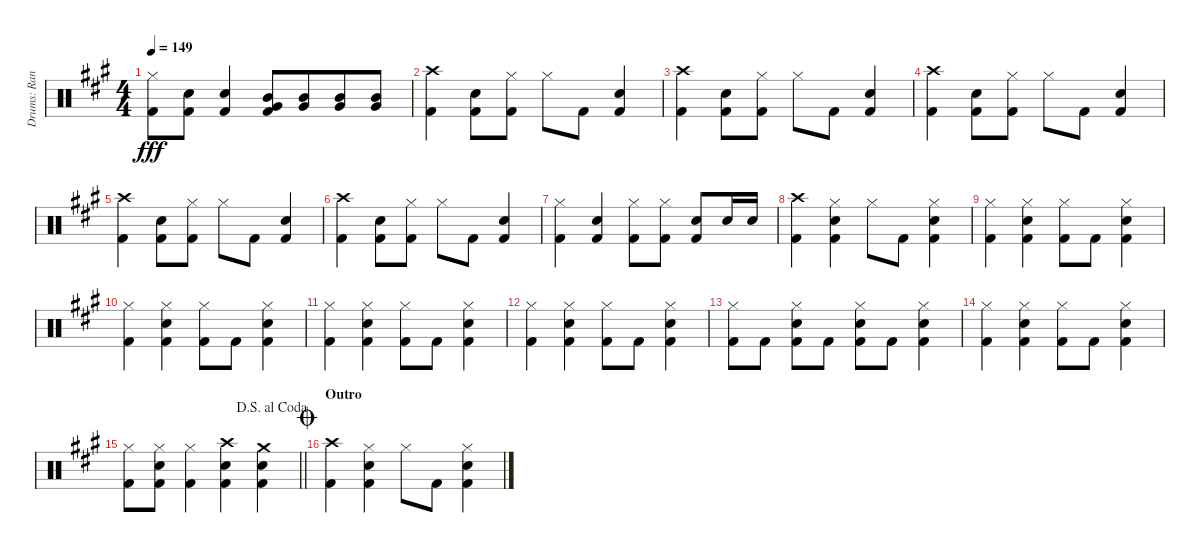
\track ("Drums: Randy" "Drums: Ran") {instrument percussion}
\staff {score}
\articulation defaults
\ts (4 4)
\tempo 149
\clef neutral
\ks a
("Hi-Hat (closed)" "Kick (hit) 2").8{dy fff} ("Snare (hit) 2" "Kick (hit) 2").8 ("Snare (hit) 2" "Kick (hit) 2").4 ("Mid Tom (hit)" "Very Low Tom (hit)" "Kick (hit) 2").8{beam merge} ("Mid Tom (hit)" "Very Low Tom (hit)").8{beam merge} ("Mid Tom (hit)" "Very Low Tom (hit)").8{beam merge} ("Mid Tom (hit)" "Very Low Tom (hit)").8 |
("Crash high (hit)" "Kick (hit) 2").4 ("Snare (hit) 2" "Kick (hit) 2").8 ("Hi-Hat (closed)" "Kick (hit) 2").8 "Hi-Hat (closed)".8 "Kick (hit) 2".8 ("Snare (hit) 2" "Kick (hit) 2").4 |
("Crash high (hit)" "Kick (hit) 2").4 ("Snare (hit) 2" "Kick (hit) 2").8 ("Hi-Hat (closed)" "Kick (hit) 2").8 "Hi-Hat (closed)".8 "Kick (hit) 2".8 ("Snare (hit) 2" "Kick (hit) 2").4 |
("Crash high (hit)" "Kick (hit) 2").4 ("Snare (hit) 2" "Kick (hit) 2").8 ("Hi-Hat (closed)" "Kick (hit) 2").8 "Hi-Hat (closed)".8 "Kick (hit) 2".8 ("Snare (hit) 2" "Kick (hit) 2").4 |
("Crash high (hit)" "Kick (hit) 2").4 ("Snare (hit) 2" "Kick (hit) 2").8 ("Hi-Hat (closed)" "Kick (hit) 2").8 "Hi-Hat (closed)".8 "Kick (hit) 2".8 ("Snare (hit) 2" "Kick (hit) 2").4 |
("Crash high (hit)" "Kick (hit) 2").4 ("Snare (hit) 2" "Kick (hit) 2").8 ("Hi-Hat (closed)" "Kick (hit) 2").8 "Hi-Hat (closed)".8 "Kick (hit) 2".8 ("Snare (hit) 2" "Kick (hit) 2").4 |
("Hi-Hat (closed)" "Kick (hit) 2").4 ("Snare (hit) 2" "Kick (hit) 2").4 ("Hi-Hat (closed)" "Kick (hit) 2").8 ("Hi-Hat (closed)" "Kick (hit) 2").8 ("Snare (hit) 2" "Kick (hit) 2").8 "Snare (hit) 2".16 "Snare (hit) 2".16 |
("Crash high (hit)" "Kick (hit) 2").4 ("Hi-Hat (closed)" "Snare (hit) 2" "Kick (hit) 2").4 "Hi-Hat (closed)".8 "Kick (hit) 2".8 ("Hi-Hat (closed)" "Snare (hit) 2" "Kick (hit) 2").4 |
("Hi-Hat (closed)" "Kick (hit) 2").4 ("Hi-Hat (closed)" "Snare (hit) 2" "Kick (hit) 2").4 ("Hi-Hat (closed)" "Kick (hit) 2").8 "Kick (hit) 2".8 ("Hi-Hat (closed)" "Snare (hit) 2" "Kick (hit) 2").4 |
("Hi-Hat (closed)" "Kick (hit) 2").4 ("Hi-Hat (closed)" "Snare (hit) 2" "Kick (hit) 2").4 ("Hi-Hat (closed)" "Kick (hit) 2").8 "Kick (hit) 2".8 ("Hi-Hat (closed)" "Snare (hit) 2" "Kick (hit) 2").4 |
("Hi-Hat (closed)" "Kick (hit) 2").4 ("Hi-Hat (closed)" "Snare (hit) 2" "Kick (hit) 2").4 ("Hi-Hat (closed)" "Kick (hit) 2").8 "Kick (hit) 2".8 ("Hi-Hat (closed)" "Snare (hit) 2" "Kick (hit) 2").4 |
("Hi-Hat (closed)" "Kick (hit) 2").4 ("Hi-Hat (closed)" "Snare (hit) 2" "Kick (hit) 2").4 ("Hi-Hat (closed)" "Kick (hit) 2").8 "Kick (hit) 2".8 ("Hi-Hat (closed)" "Snare (hit) 2" "Kick (hit) 2").4 |
("Hi-Hat (closed)" "Kick (hit) 2").8 "Kick (hit) 2".8 ("Hi-Hat (closed)" "Snare (hit) 2" "Kick (hit) 2").8 "Kick (hit) 2".8 ("Hi-Hat (closed)" "Snare (hit) 2" "Kick (hit) 2").8 "Kick (hit) 2".8 ("Hi-Hat (closed)" "Snare (hit) 2" "Kick (hit) 2").4 |
("Hi-Hat (closed)" "Kick (hit) 2").4 ("Hi-Hat (closed)" "Snare (hit) 2" "Kick (hit) 2").4 ("Hi-Hat (closed)" "Kick (hit) 2").8 "Kick (hit) 2".8 ("Hi-Hat (closed)" "Snare (hit) 2" "Kick (hit) 2").4 |
\jump dalsegnoalcoda
\barLineRight lightlight
("Hi-Hat (closed)" "Kick (hit) 2").8 ("Hi-Hat (closed)" "Snare (hit) 2" "Kick (hit) 2").8 ("Hi-Hat (closed)" "Kick (hit) 2").4 ("Crash high (hit)" "Snare (hit) 2" "Kick (hit) 2").4 ("Crash medium (hit)" "Snare (hit) 2" "Kick (hit) 2").4 |
\section ("" "Outro")
\jump coda
("Crash high (hit)" "Kick (hit) 2").4 ("Hi-Hat (closed)" "Snare (hit) 2" "Kick (hit) 2").4 "Hi-Hat (closed)".8 "Kick (hit) 2".8 ("Hi-Hat (closed)" "Snare (hit) 2" "Kick (hit) 2").4
